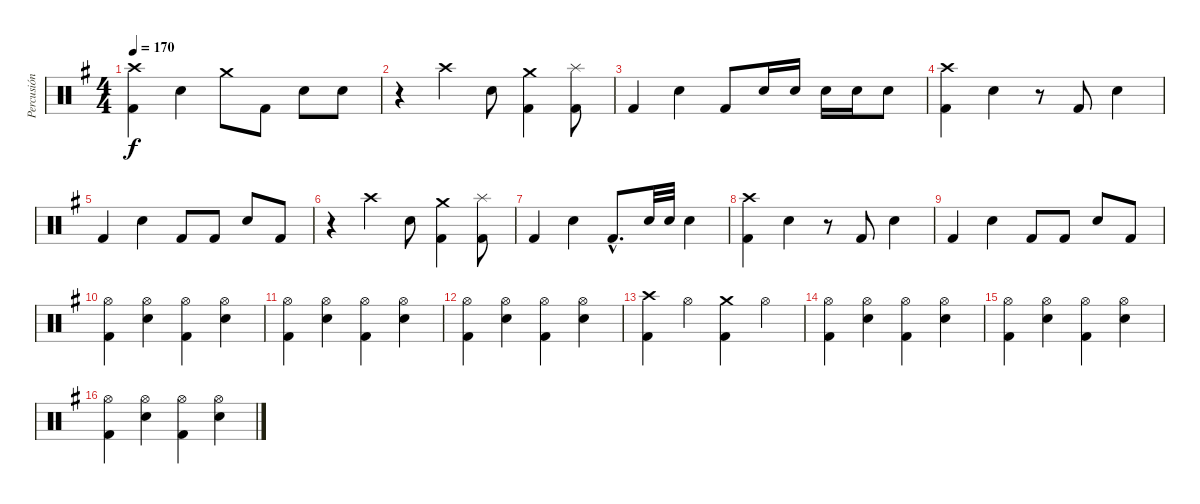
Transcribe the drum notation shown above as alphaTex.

\track ("Percusión" "Percusión") {instrument percussion}
\staff {score}
\articulation defaults
\ts (4 4)
\tempo 170
\clef neutral
\ks g
("Crash high (hit)" "Kick (hit) 2").4{dy f} "Snare (hit) 2".4 "Crash medium (hit)".8 "Kick (hit) 2".8 "Snare (hit) 2".8 "Snare (hit) 2".8 |
r.4 "Crash high (hit)".4 "Snare (hit) 2".8 ("Crash medium (hit)" "Kick (hit) 2").4 ("Splash (hit)" "Kick (hit) 2").8 |
"Kick (hit) 2".4 "Snare (hit) 2".4 "Kick (hit) 2".8 "Electric Snare (hit)".16 "Electric Snare (hit)".16 "Electric Snare (hit)".16 "Electric Snare (hit)".16 "Electric Snare (hit)".8 |
("Crash high (hit)" "Kick (hit) 2").4 "Snare (hit) 2".4 r.8 "Kick (hit) 2".8 "Snare (hit) 2".4 |
"Kick (hit) 2".4 "Snare (hit) 2".4 "Kick (hit) 2".8 "Kick (hit) 2".8 "Snare (hit) 2".8 "Kick (hit) 2".8 |
r.4 "Crash high (hit)".4 "Snare (hit) 2".8 ("Crash medium (hit)" "Kick (hit) 2").4 ("Splash (hit)" "Kick (hit) 2").8 |
"Kick (hit) 2".4 "Snare (hit) 2".4 "Kick (hit) 2"{hac}.8{d} "Electric Snare (hit)".32 "Electric Snare (hit)".32 "Electric Snare (hit)".4 |
("Crash high (hit)" "Kick (hit) 2").4 "Snare (hit) 2".4 r.8 "Kick (hit) 2".8 "Snare (hit) 2".4 |
"Kick (hit) 2".4 "Snare (hit) 2".4 "Kick (hit) 2".8 "Kick (hit) 2".8 "Snare (hit) 2".8 "Kick (hit) 2".8 |
("Hi-Hat (open)" "Kick (hit) 2").4 ("Hi-Hat (open)" "Snare (hit) 2").4 ("Hi-Hat (open)" "Kick (hit) 2").4 ("Hi-Hat (open)" "Snare (hit) 2").4 |
("Hi-Hat (open)" "Kick (hit) 2").4 ("Hi-Hat (open)" "Snare (hit) 2").4 ("Hi-Hat (open)" "Kick (hit) 2").4 ("Hi-Hat (open)" "Snare (hit) 2").4 |
("Hi-Hat (open)" "Kick (hit) 2").4 ("Hi-Hat (open)" "Snare (hit) 2").4 ("Hi-Hat (open)" "Kick (hit) 2").4 ("Hi-Hat (open)" "Snare (hit) 2").4 |
("Crash high (hit)" "Kick (hit) 2").4 "Hi-Hat (open)".4 ("Crash medium (hit)" "Kick (hit) 2").4 "Hi-Hat (open)".4 |
("Hi-Hat (open)" "Kick (hit) 2").4 ("Hi-Hat (open)" "Snare (hit) 2").4 ("Hi-Hat (open)" "Kick (hit) 2").4 ("Hi-Hat (open)" "Snare (hit) 2").4 |
("Hi-Hat (open)" "Kick (hit) 2").4 ("Hi-Hat (open)" "Snare (hit) 2").4 ("Hi-Hat (open)" "Kick (hit) 2").4 ("Hi-Hat (open)" "Snare (hit) 2").4 |
("Hi-Hat (open)" "Kick (hit) 2").4 ("Hi-Hat (open)" "Snare (hit) 2").4 ("Hi-Hat (open)" "Kick (hit) 2").4 ("Hi-Hat (open)" "Snare (hit) 2").4
